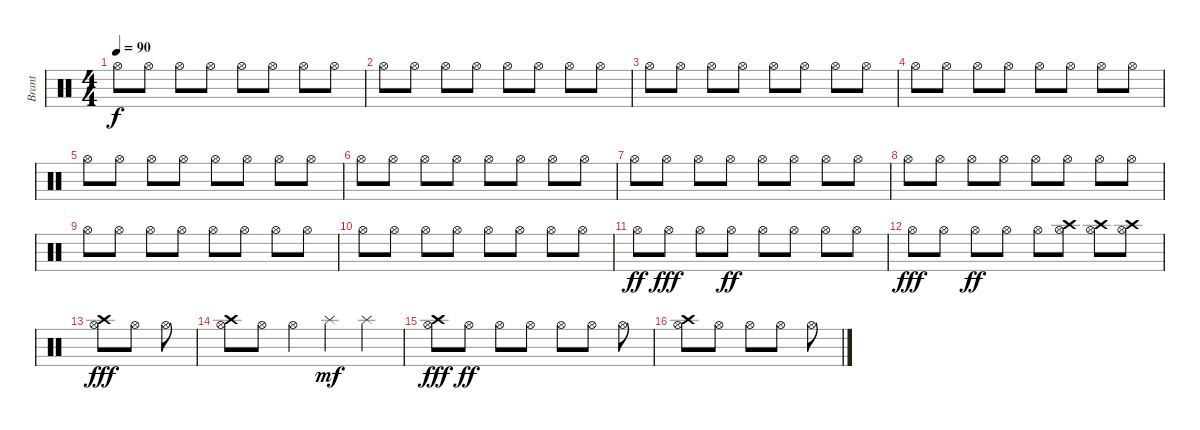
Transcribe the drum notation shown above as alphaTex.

\track ("Brant" "Brant") {instrument percussion}
\staff {score}
\articulation defaults
\ts (4 4)
\tempo 90
\clef neutral
\ks c "Hi-Hat (open)".8{dy f} "Hi-Hat (open)".8 "Hi-Hat (open)".8 "Hi-Hat (open)".8 "Hi-Hat (open)".8 "Hi-Hat (open)".8 "Hi-Hat (open)".8 "Hi-Hat (open)".8
|
"Hi-Hat (open)".8 "Hi-Hat (open)".8 "Hi-Hat (open)".8 "Hi-Hat (open)".8 "Hi-Hat (open)".8 "Hi-Hat (open)".8 "Hi-Hat (open)".8 "Hi-Hat (open)".8 |
"Hi-Hat (open)".8 "Hi-Hat (open)".8 "Hi-Hat (open)".8 "Hi-Hat (open)".8 "Hi-Hat (open)".8 "Hi-Hat (open)".8 "Hi-Hat (open)".8 "Hi-Hat (open)".8 |
"Hi-Hat (open)".8 "Hi-Hat (open)".8 "Hi-Hat (open)".8 "Hi-Hat (open)".8 "Hi-Hat (open)".8 "Hi-Hat (open)".8 "Hi-Hat (open)".8 "Hi-Hat (open)".8 |
"Hi-Hat (open)".8 "Hi-Hat (open)".8 "Hi-Hat (open)".8 "Hi-Hat (open)".8 "Hi-Hat (open)".8 "Hi-Hat (open)".8 "Hi-Hat (open)".8 "Hi-Hat (open)".8 |
"Hi-Hat (open)".8 "Hi-Hat (open)".8 "Hi-Hat (open)".8 "Hi-Hat (open)".8 "Hi-Hat (open)".8 "Hi-Hat (open)".8 "Hi-Hat (open)".8 "Hi-Hat (open)".8 |
"Hi-Hat (open)".8 "Hi-Hat (open)".8 "Hi-Hat (open)".8 "Hi-Hat (open)".8 "Hi-Hat (open)".8 "Hi-Hat (open)".8 "Hi-Hat (open)".8 "Hi-Hat (open)".8 |
"Hi-Hat (open)".8 "Hi-Hat (open)".8 "Hi-Hat (open)".8 "Hi-Hat (open)".8 "Hi-Hat (open)".8 "Hi-Hat (open)".8 "Hi-Hat (open)".8 "Hi-Hat (open)".8 |
"Hi-Hat (open)".8 "Hi-Hat (open)".8 "Hi-Hat (open)".8 "Hi-Hat (open)".8 "Hi-Hat (open)".8 "Hi-Hat (open)".8 "Hi-Hat (open)".8 "Hi-Hat (open)".8 |
"Hi-Hat (open)".8 "Hi-Hat (open)".8 "Hi-Hat (open)".8 "Hi-Hat (open)".8 "Hi-Hat (open)".8 "Hi-Hat (open)".8 "Hi-Hat (open)".8 "Hi-Hat (open)".8 |
"Hi-Hat (open)".8{dy ff} "Hi-Hat (open)".8{dy fff} "Hi-Hat (open)".8 "Hi-Hat (open)".8{dy ff} "Hi-Hat (open)".8 "Hi-Hat (open)".8 "Hi-Hat (open)".8 "Hi-Hat (open)".8 |
"Hi-Hat (open)".8{dy fff} "Hi-Hat (open)".8 "Hi-Hat (open)".8{dy ff} "Hi-Hat (open)".8 "Hi-Hat (open)".8 ("Crash high (hit)" "Hi-Hat (open)").8 ("Crash high (hit)" "Hi-Hat (open)").8 ("Crash high (hit)" "Hi-Hat (open)").8 |
("Crash high (hit)" "Hi-Hat (open)").8{dy fff} "Hi-Hat (open)".8 "Hi-Hat (open)".8 |
("Crash high (hit)" "Hi-Hat (open)").8 "Hi-Hat (open)".8 "Hi-Hat (open)".4 "Splash (hit)".4{dy mf} "Splash (hit)".4 |
("Crash high (hit)" "Hi-Hat (open)").8{dy fff} "Hi-Hat (open)".8{dy ff} "Hi-Hat (open)".8 "Hi-Hat (open)".8 "Hi-Hat (open)".8 "Hi-Hat (open)".8 "Hi-Hat (open)".8 |
("Crash high (hit)" "Hi-Hat (open)").8 "Hi-Hat (open)".8 "Hi-Hat (open)".8 "Hi-Hat (open)".8 "Hi-Hat (open)".8
